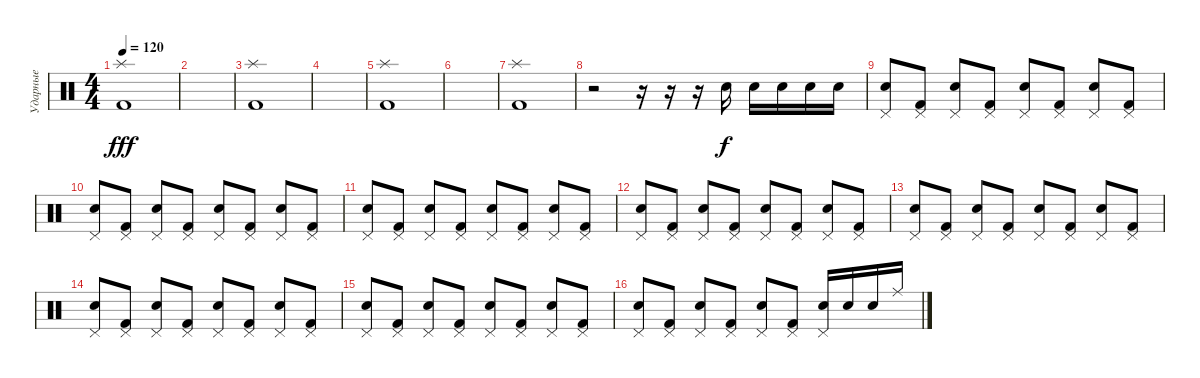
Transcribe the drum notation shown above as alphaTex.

\track ("Ударные" "Ударные") {instrument percussion}
\staff {score}
\articulation defaults
\ts (4 4)
\tempo 120
\clef neutral
\ks c
("Kick (hit) 2" "Splash (hit)").1{dy fff} |
|
("Splash (hit)" "Kick (hit) 2").1 |
|
("Kick (hit) 2" "Splash (hit)").1 |
|
("Kick (hit) 2" "Splash (hit)").1 |
r.2 r.16 r.16 r.16 "Electric Snare (hit)".16{dy f} "Electric Snare (hit)".16 "Electric Snare (hit)".16 "Electric Snare (hit)".16 "Snare (hit) 2".16 |
("Snare (hit) 2" "Pedal Hi-Hat (hit)").8 ("Pedal Hi-Hat (hit)" "Kick (hit) 2").8 ("Snare (hit) 2" "Pedal Hi-Hat (hit)").8 ("Pedal Hi-Hat (hit)" "Kick (hit) 2").8 ("Snare (hit) 2" "Pedal Hi-Hat (hit)").8 ("Pedal Hi-Hat (hit)" "Kick (hit) 2").8 ("Snare (hit) 2" "Pedal Hi-Hat (hit)").8 ("Pedal Hi-Hat (hit)" "Kick (hit) 2").8 |
("Snare (hit) 2" "Pedal Hi-Hat (hit)").8 ("Pedal Hi-Hat (hit)" "Kick (hit) 2").8 ("Snare (hit) 2" "Pedal Hi-Hat (hit)").8 ("Pedal Hi-Hat (hit)" "Kick (hit) 2").8 ("Snare (hit) 2" "Pedal Hi-Hat (hit)").8 ("Pedal Hi-Hat (hit)" "Kick (hit) 2").8 ("Snare (hit) 2" "Pedal Hi-Hat (hit)").8 ("Pedal Hi-Hat (hit)" "Kick (hit) 2").8 |
("Snare (hit) 2" "Pedal Hi-Hat (hit)").8 ("Pedal Hi-Hat (hit)" "Kick (hit) 2").8 ("Snare (hit) 2" "Pedal Hi-Hat (hit)").8 ("Pedal Hi-Hat (hit)" "Kick (hit) 2").8 ("Snare (hit) 2" "Pedal Hi-Hat (hit)").8 ("Pedal Hi-Hat (hit)" "Kick (hit) 2").8 ("Snare (hit) 2" "Pedal Hi-Hat (hit)").8 ("Pedal Hi-Hat (hit)" "Kick (hit) 2").8 |
("Snare (hit) 2" "Pedal Hi-Hat (hit)").8 ("Pedal Hi-Hat (hit)" "Kick (hit) 2").8 ("Snare (hit) 2" "Pedal Hi-Hat (hit)").8 ("Pedal Hi-Hat (hit)" "Kick (hit) 2").8 ("Snare (hit) 2" "Pedal Hi-Hat (hit)").8 ("Pedal Hi-Hat (hit)" "Kick (hit) 2").8 ("Snare (hit) 2" "Pedal Hi-Hat (hit)").8 ("Pedal Hi-Hat (hit)" "Kick (hit) 2").8 |
("Snare (hit) 2" "Pedal Hi-Hat (hit)").8 ("Pedal Hi-Hat (hit)" "Kick (hit) 2").8 ("Snare (hit) 2" "Pedal Hi-Hat (hit)").8 ("Pedal Hi-Hat (hit)" "Kick (hit) 2").8 ("Snare (hit) 2" "Pedal Hi-Hat (hit)").8 ("Pedal Hi-Hat (hit)" "Kick (hit) 2").8 ("Snare (hit) 2" "Pedal Hi-Hat (hit)").8 ("Pedal Hi-Hat (hit)" "Kick (hit) 2").8 |
("Snare (hit) 2" "Pedal Hi-Hat (hit)").8 ("Pedal Hi-Hat (hit)" "Kick (hit) 2").8 ("Snare (hit) 2" "Pedal Hi-Hat (hit)").8 ("Pedal Hi-Hat (hit)" "Kick (hit) 2").8 ("Snare (hit) 2" "Pedal Hi-Hat (hit)").8 ("Pedal Hi-Hat (hit)" "Kick (hit) 2").8 ("Snare (hit) 2" "Pedal Hi-Hat (hit)").8 ("Pedal Hi-Hat (hit)" "Kick (hit) 2").8 |
("Snare (hit) 2" "Pedal Hi-Hat (hit)").8 ("Pedal Hi-Hat (hit)" "Kick (hit) 2").8 ("Snare (hit) 2" "Pedal Hi-Hat (hit)").8 ("Pedal Hi-Hat (hit)" "Kick (hit) 2").8 ("Snare (hit) 2" "Pedal Hi-Hat (hit)").8 ("Pedal Hi-Hat (hit)" "Kick (hit) 2").8 ("Snare (hit) 2" "Pedal Hi-Hat (hit)").8 ("Pedal Hi-Hat (hit)" "Kick (hit) 2").8 |
("Snare (hit) 2" "Pedal Hi-Hat (hit)").8 ("Pedal Hi-Hat (hit)" "Kick (hit) 2").8 ("Snare (hit) 2" "Pedal Hi-Hat (hit)").8 ("Pedal Hi-Hat (hit)" "Kick (hit) 2").8 ("Snare (hit) 2" "Pedal Hi-Hat (hit)").8 ("Pedal Hi-Hat (hit)" "Kick (hit) 2").8 ("Snare (hit) 2" "Pedal Hi-Hat (hit)").16 "Snare (hit) 2".16 "Snare (hit) 2".16 "Ride (middle)".16
